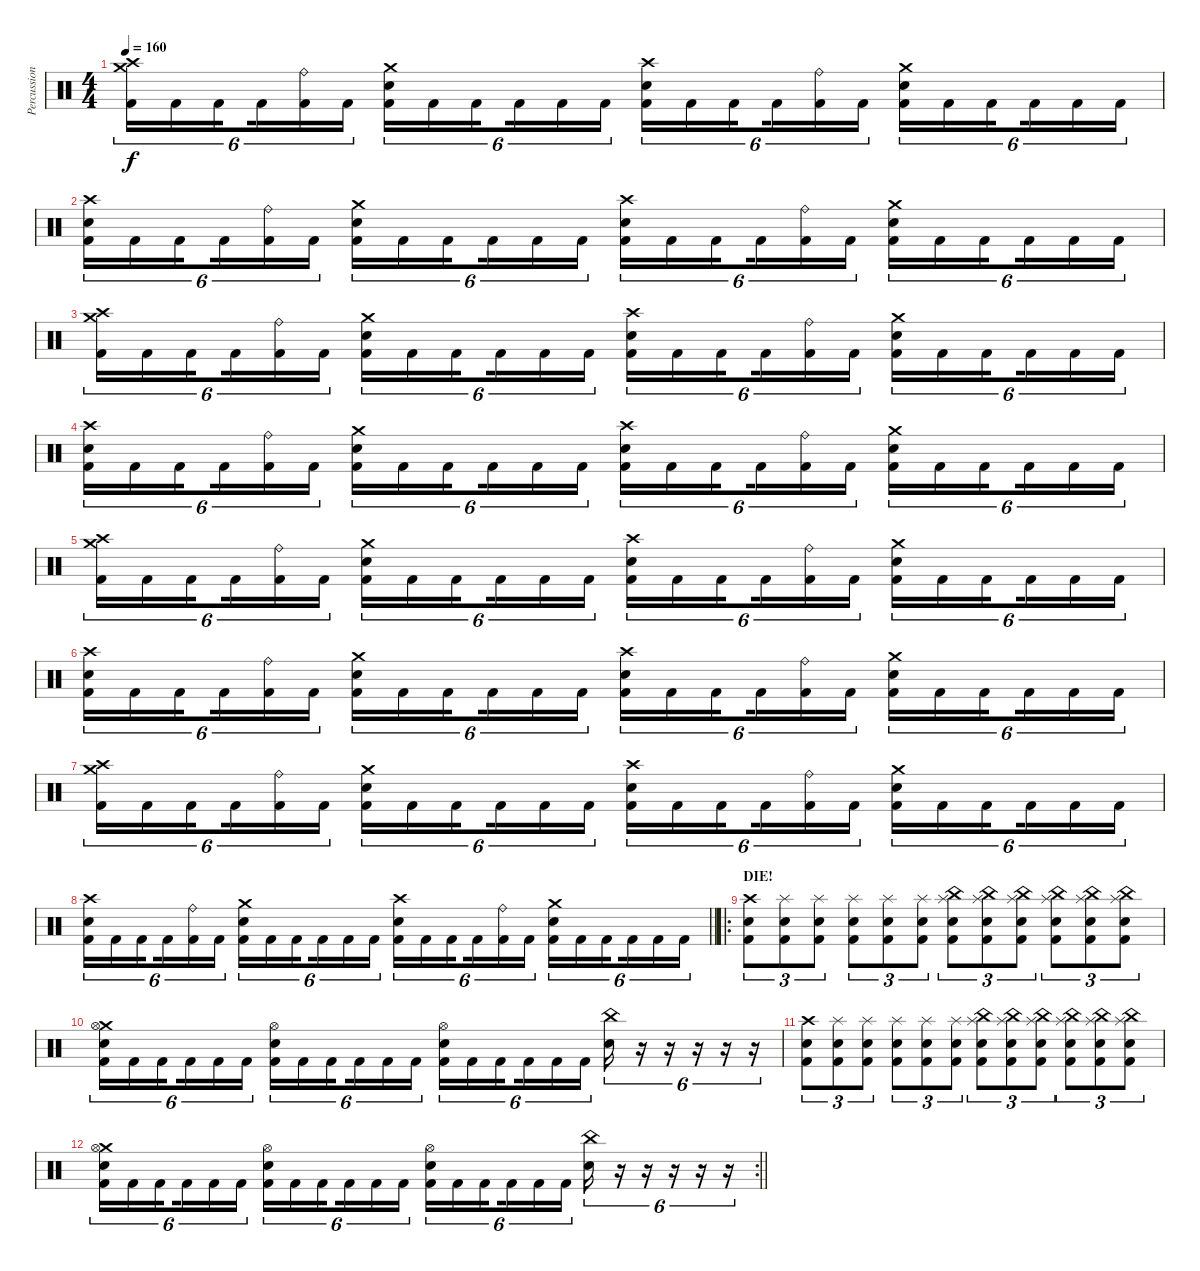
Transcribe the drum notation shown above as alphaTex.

\track ("Percussion" "Percussion") {instrument percussion}
\staff {score}
\articulation defaults
\ts (4 4)
\tempo 160
\clef neutral
\ks c
("Crash medium (hit)" "Crash high (hit)" "Kick (hit) 2").16{tu (6 4) dy f} "Kick (hit) 2".16{tu (6 4)} "Kick (hit) 2".16{tu (6 4) beam splitsecondary} "Kick (hit) 2".16{tu (6 4)} ("Ride (bell)" "Kick (hit) 2").16{tu (6 4)} "Kick (hit) 2".16{tu (6 4)} ("Crash medium (hit)" "Electric Snare (hit)" "Kick (hit) 2").16{tu (6 4)} "Kick (hit) 2".16{tu (6 4)} "Kick (hit) 2".16{tu (6 4) beam splitsecondary} "Kick (hit) 2".16{tu (6 4)} "Kick (hit) 2".16{tu (6 4)} "Kick (hit) 2".16{tu (6 4)} ("Crash high (hit)" "Electric Snare (hit)" "Kick (hit) 2").16{tu (6 4)} "Kick (hit) 2".16{tu (6 4)} "Kick (hit) 2".16{tu (6 4) beam splitsecondary} "Kick (hit) 2".16{tu (6 4)} ("Ride (bell)" "Kick (hit) 2").16{tu (6 4)} "Kick (hit) 2".16{tu (6 4)} ("Crash medium (hit)" "Electric Snare (hit)" "Kick (hit) 2").16{tu (6 4)} "Kick (hit) 2".16{tu (6 4)} "Kick (hit) 2".16{tu (6 4) beam splitsecondary} "Kick (hit) 2".16{tu (6 4)} "Kick (hit) 2".16{tu (6 4)} "Kick (hit) 2".16{tu (6 4)} |
("Crash high (hit)" "Electric Snare (hit)" "Kick (hit) 2").16{tu (6 4)} "Kick (hit) 2".16{tu (6 4)} "Kick (hit) 2".16{tu (6 4) beam splitsecondary} "Kick (hit) 2".16{tu (6 4)} ("Ride (bell)" "Kick (hit) 2").16{tu (6 4)} "Kick (hit) 2".16{tu (6 4)} ("Crash medium (hit)" "Electric Snare (hit)" "Kick (hit) 2").16{tu (6 4)} "Kick (hit) 2".16{tu (6 4)} "Kick (hit) 2".16{tu (6 4) beam splitsecondary} "Kick (hit) 2".16{tu (6 4)} "Kick (hit) 2".16{tu (6 4)} "Kick (hit) 2".16{tu (6 4)} ("Crash high (hit)" "Electric Snare (hit)" "Kick (hit) 2").16{tu (6 4)} "Kick (hit) 2".16{tu (6 4)} "Kick (hit) 2".16{tu (6 4) beam splitsecondary} "Kick (hit) 2".16{tu (6 4)} ("Ride (bell)" "Kick (hit) 2").16{tu (6 4)} "Kick (hit) 2".16{tu (6 4)} ("Crash medium (hit)" "Electric Snare (hit)" "Kick (hit) 2").16{tu (6 4)} "Kick (hit) 2".16{tu (6 4)} "Kick (hit) 2".16{tu (6 4) beam splitsecondary} "Kick (hit) 2".16{tu (6 4)} "Kick (hit) 2".16{tu (6 4)} "Kick (hit) 2".16{tu (6 4)} |
("Crash medium (hit)" "Crash high (hit)" "Kick (hit) 2").16{tu (6 4)} "Kick (hit) 2".16{tu (6 4)} "Kick (hit) 2".16{tu (6 4) beam splitsecondary} "Kick (hit) 2".16{tu (6 4)} ("Ride (bell)" "Kick (hit) 2").16{tu (6 4)} "Kick (hit) 2".16{tu (6 4)} ("Crash medium (hit)" "Electric Snare (hit)" "Kick (hit) 2").16{tu (6 4)} "Kick (hit) 2".16{tu (6 4)} "Kick (hit) 2".16{tu (6 4) beam splitsecondary} "Kick (hit) 2".16{tu (6 4)} "Kick (hit) 2".16{tu (6 4)} "Kick (hit) 2".16{tu (6 4)} ("Crash high (hit)" "Electric Snare (hit)" "Kick (hit) 2").16{tu (6 4)} "Kick (hit) 2".16{tu (6 4)} "Kick (hit) 2".16{tu (6 4) beam splitsecondary} "Kick (hit) 2".16{tu (6 4)} ("Ride (bell)" "Kick (hit) 2").16{tu (6 4)} "Kick (hit) 2".16{tu (6 4)} ("Crash medium (hit)" "Electric Snare (hit)" "Kick (hit) 2").16{tu (6 4)} "Kick (hit) 2".16{tu (6 4)} "Kick (hit) 2".16{tu (6 4) beam splitsecondary} "Kick (hit) 2".16{tu (6 4)} "Kick (hit) 2".16{tu (6 4)} "Kick (hit) 2".16{tu (6 4)} |
("Crash high (hit)" "Electric Snare (hit)" "Kick (hit) 2").16{tu (6 4)} "Kick (hit) 2".16{tu (6 4)} "Kick (hit) 2".16{tu (6 4) beam splitsecondary} "Kick (hit) 2".16{tu (6 4)} ("Ride (bell)" "Kick (hit) 2").16{tu (6 4)} "Kick (hit) 2".16{tu (6 4)} ("Crash medium (hit)" "Electric Snare (hit)" "Kick (hit) 2").16{tu (6 4)} "Kick (hit) 2".16{tu (6 4)} "Kick (hit) 2".16{tu (6 4) beam splitsecondary} "Kick (hit) 2".16{tu (6 4)} "Kick (hit) 2".16{tu (6 4)} "Kick (hit) 2".16{tu (6 4)} ("Crash high (hit)" "Electric Snare (hit)" "Kick (hit) 2").16{tu (6 4)} "Kick (hit) 2".16{tu (6 4)} "Kick (hit) 2".16{tu (6 4) beam splitsecondary} "Kick (hit) 2".16{tu (6 4)} ("Ride (bell)" "Kick (hit) 2").16{tu (6 4)} "Kick (hit) 2".16{tu (6 4)} ("Crash medium (hit)" "Electric Snare (hit)" "Kick (hit) 2").16{tu (6 4)} "Kick (hit) 2".16{tu (6 4)} "Kick (hit) 2".16{tu (6 4) beam splitsecondary} "Kick (hit) 2".16{tu (6 4)} "Kick (hit) 2".16{tu (6 4)} "Kick (hit) 2".16{tu (6 4)} |
("Crash medium (hit)" "Crash high (hit)" "Kick (hit) 2").16{tu (6 4)} "Kick (hit) 2".16{tu (6 4)} "Kick (hit) 2".16{tu (6 4) beam splitsecondary} "Kick (hit) 2".16{tu (6 4)} ("Ride (bell)" "Kick (hit) 2").16{tu (6 4)} "Kick (hit) 2".16{tu (6 4)} ("Crash medium (hit)" "Electric Snare (hit)" "Kick (hit) 2").16{tu (6 4)} "Kick (hit) 2".16{tu (6 4)} "Kick (hit) 2".16{tu (6 4) beam splitsecondary} "Kick (hit) 2".16{tu (6 4)} "Kick (hit) 2".16{tu (6 4)} "Kick (hit) 2".16{tu (6 4)} ("Crash high (hit)" "Electric Snare (hit)" "Kick (hit) 2").16{tu (6 4)} "Kick (hit) 2".16{tu (6 4)} "Kick (hit) 2".16{tu (6 4) beam splitsecondary} "Kick (hit) 2".16{tu (6 4)} ("Ride (bell)" "Kick (hit) 2").16{tu (6 4)} "Kick (hit) 2".16{tu (6 4)} ("Crash medium (hit)" "Electric Snare (hit)" "Kick (hit) 2").16{tu (6 4)} "Kick (hit) 2".16{tu (6 4)} "Kick (hit) 2".16{tu (6 4) beam splitsecondary} "Kick (hit) 2".16{tu (6 4)} "Kick (hit) 2".16{tu (6 4)} "Kick (hit) 2".16{tu (6 4)} |
("Crash high (hit)" "Electric Snare (hit)" "Kick (hit) 2").16{tu (6 4)} "Kick (hit) 2".16{tu (6 4)} "Kick (hit) 2".16{tu (6 4) beam splitsecondary} "Kick (hit) 2".16{tu (6 4)} ("Ride (bell)" "Kick (hit) 2").16{tu (6 4)} "Kick (hit) 2".16{tu (6 4)} ("Crash medium (hit)" "Electric Snare (hit)" "Kick (hit) 2").16{tu (6 4)} "Kick (hit) 2".16{tu (6 4)} "Kick (hit) 2".16{tu (6 4) beam splitsecondary} "Kick (hit) 2".16{tu (6 4)} "Kick (hit) 2".16{tu (6 4)} "Kick (hit) 2".16{tu (6 4)} ("Crash high (hit)" "Electric Snare (hit)" "Kick (hit) 2").16{tu (6 4)} "Kick (hit) 2".16{tu (6 4)} "Kick (hit) 2".16{tu (6 4) beam splitsecondary} "Kick (hit) 2".16{tu (6 4)} ("Ride (bell)" "Kick (hit) 2").16{tu (6 4)} "Kick (hit) 2".16{tu (6 4)} ("Crash medium (hit)" "Electric Snare (hit)" "Kick (hit) 2").16{tu (6 4)} "Kick (hit) 2".16{tu (6 4)} "Kick (hit) 2".16{tu (6 4) beam splitsecondary} "Kick (hit) 2".16{tu (6 4)} "Kick (hit) 2".16{tu (6 4)} "Kick (hit) 2".16{tu (6 4)} |
("Crash medium (hit)" "Crash high (hit)" "Kick (hit) 2").16{tu (6 4)} "Kick (hit) 2".16{tu (6 4)} "Kick (hit) 2".16{tu (6 4) beam splitsecondary} "Kick (hit) 2".16{tu (6 4)} ("Ride (bell)" "Kick (hit) 2").16{tu (6 4)} "Kick (hit) 2".16{tu (6 4)} ("Crash medium (hit)" "Electric Snare (hit)" "Kick (hit) 2").16{tu (6 4)} "Kick (hit) 2".16{tu (6 4)} "Kick (hit) 2".16{tu (6 4) beam splitsecondary} "Kick (hit) 2".16{tu (6 4)} "Kick (hit) 2".16{tu (6 4)} "Kick (hit) 2".16{tu (6 4)} ("Crash high (hit)" "Electric Snare (hit)" "Kick (hit) 2").16{tu (6 4)} "Kick (hit) 2".16{tu (6 4)} "Kick (hit) 2".16{tu (6 4) beam splitsecondary} "Kick (hit) 2".16{tu (6 4)} ("Ride (bell)" "Kick (hit) 2").16{tu (6 4)} "Kick (hit) 2".16{tu (6 4)} ("Crash medium (hit)" "Electric Snare (hit)" "Kick (hit) 2").16{tu (6 4)} "Kick (hit) 2".16{tu (6 4)} "Kick (hit) 2".16{tu (6 4) beam splitsecondary} "Kick (hit) 2".16{tu (6 4)} "Kick (hit) 2".16{tu (6 4)} "Kick (hit) 2".16{tu (6 4)} |
\barLineRight lightlight
("Crash high (hit)" "Electric Snare (hit)" "Kick (hit) 2").16{tu (6 4)} "Kick (hit) 2".16{tu (6 4)} "Kick (hit) 2".16{tu (6 4) beam splitsecondary} "Kick (hit) 2".16{tu (6 4)} ("Ride (bell)" "Kick (hit) 2").16{tu (6 4)} "Kick (hit) 2".16{tu (6 4)} ("Crash medium (hit)" "Electric Snare (hit)" "Kick (hit) 2").16{tu (6 4)} "Kick (hit) 2".16{tu (6 4)} "Kick (hit) 2".16{tu (6 4) beam splitsecondary} "Kick (hit) 2".16{tu (6 4)} "Kick (hit) 2".16{tu (6 4)} "Kick (hit) 2".16{tu (6 4)} ("Crash high (hit)" "Electric Snare (hit)" "Kick (hit) 2").16{tu (6 4)} "Kick (hit) 2".16{tu (6 4)} "Kick (hit) 2".16{tu (6 4) beam splitsecondary} "Kick (hit) 2".16{tu (6 4)} ("Ride (bell)" "Kick (hit) 2").16{tu (6 4)} "Kick (hit) 2".16{tu (6 4)} ("Crash medium (hit)" "Electric Snare (hit)" "Kick (hit) 2").16{tu (6 4)} "Kick (hit) 2".16{tu (6 4)} "Kick (hit) 2".16{tu (6 4) beam splitsecondary} "Kick (hit) 2".16{tu (6 4)} "Kick (hit) 2".16{tu (6 4)} "Kick (hit) 2".16{tu (6 4)} |
\ro
\section ("" "DIE!")
("Crash high (hit)" "Electric Snare (hit)" "Kick (hit) 2").8{tu (3 2)} ("Splash (hit)" "Electric Snare (hit)" "Kick (hit) 2").8{tu (3 2)} ("Splash (hit)" "Electric Snare (hit)" "Kick (hit) 2").8{tu (3 2)} ("Splash (hit)" "Electric Snare (hit)" "Kick (hit) 2").8{tu (3 2)} ("Splash (hit)" "Electric Snare (hit)" "Kick (hit) 2").8{tu (3 2)} ("Splash (hit)" "Electric Snare (hit)" "Kick (hit) 2").8{tu (3 2)} ("China (hit)" "Splash (hit)" "Electric Snare (hit)" "Kick (hit) 2").8{tu (3 2)} ("China (hit)" "Splash (hit)" "Electric Snare (hit)" "Kick (hit) 2").8{tu (3 2)} ("China (hit)" "Splash (hit)" "Electric Snare (hit)" "Kick (hit) 2").8{tu (3 2)} ("China (hit)" "Splash (hit)" "Electric Snare (hit)" "Kick (hit) 2").8{tu (3 2)} ("China (hit)" "Splash (hit)" "Electric Snare (hit)" "Kick (hit) 2").8{tu (3 2)} ("China (hit)" "Splash (hit)" "Electric Snare (hit)" "Kick (hit) 2").8{tu (3 2)} |
("Crash medium (hit)" "Hi-Hat (open)" "Electric Snare (hit)" "Kick (hit) 2").16{tu (6 4)} "Kick (hit) 2".16{tu (6 4)} "Kick (hit) 2".16{tu (6 4) beam splitsecondary} "Kick (hit) 2".16{tu (6 4)} "Kick (hit) 2".16{tu (6 4)} "Kick (hit) 2".16{tu (6 4)} ("Hi-Hat (open)" "Electric Snare (hit)" "Kick (hit) 2").16{tu (6 4)} "Kick (hit) 2".16{tu (6 4)} "Kick (hit) 2".16{tu (6 4) beam splitsecondary} "Kick (hit) 2".16{tu (6 4)} "Kick (hit) 2".16{tu (6 4)} "Kick (hit) 2".16{tu (6 4)} ("Hi-Hat (open)" "Electric Snare (hit)" "Kick (hit) 2").16{tu (6 4)} "Kick (hit) 2".16{tu (6 4)} "Kick (hit) 2".16{tu (6 4) beam splitsecondary} "Kick (hit) 2".16{tu (6 4)} "Kick (hit) 2".16{tu (6 4)} "Kick (hit) 2".16{tu (6 4)} ("China (hit)" "Electric Snare (hit)").16{tu (6 4)} r.16{tu (6 4)} r.16{tu (6 4)} r.16{tu (6 4)} r.16{tu (6 4)} r.16{tu (6 4)} |
("Crash high (hit)" "Electric Snare (hit)" "Kick (hit) 2").8{tu (3 2)} ("Splash (hit)" "Electric Snare (hit)" "Kick (hit) 2").8{tu (3 2)} ("Splash (hit)" "Electric Snare (hit)" "Kick (hit) 2").8{tu (3 2)} ("Splash (hit)" "Electric Snare (hit)" "Kick (hit) 2").8{tu (3 2)} ("Splash (hit)" "Electric Snare (hit)" "Kick (hit) 2").8{tu (3 2)} ("Splash (hit)" "Electric Snare (hit)" "Kick (hit) 2").8{tu (3 2)} ("China (hit)" "Splash (hit)" "Electric Snare (hit)" "Kick (hit) 2").8{tu (3 2)} ("China (hit)" "Splash (hit)" "Electric Snare (hit)" "Kick (hit) 2").8{tu (3 2)} ("China (hit)" "Splash (hit)" "Electric Snare (hit)" "Kick (hit) 2").8{tu (3 2)} ("China (hit)" "Splash (hit)" "Electric Snare (hit)" "Kick (hit) 2").8{tu (3 2)} ("China (hit)" "Splash (hit)" "Electric Snare (hit)" "Kick (hit) 2").8{tu (3 2)} ("China (hit)" "Splash (hit)" "Electric Snare (hit)" "Kick (hit) 2").8{tu (3 2)} |
\rc 2
\barLineRight lightlight
("Crash medium (hit)" "Hi-Hat (open)" "Electric Snare (hit)" "Kick (hit) 2").16{tu (6 4)} "Kick (hit) 2".16{tu (6 4)} "Kick (hit) 2".16{tu (6 4) beam splitsecondary} "Kick (hit) 2".16{tu (6 4)} "Kick (hit) 2".16{tu (6 4)} "Kick (hit) 2".16{tu (6 4)} ("Hi-Hat (open)" "Electric Snare (hit)" "Kick (hit) 2").16{tu (6 4)} "Kick (hit) 2".16{tu (6 4)} "Kick (hit) 2".16{tu (6 4) beam splitsecondary} "Kick (hit) 2".16{tu (6 4)} "Kick (hit) 2".16{tu (6 4)} "Kick (hit) 2".16{tu (6 4)} ("Hi-Hat (open)" "Electric Snare (hit)" "Kick (hit) 2").16{tu (6 4)} "Kick (hit) 2".16{tu (6 4)} "Kick (hit) 2".16{tu (6 4) beam splitsecondary} "Kick (hit) 2".16{tu (6 4)} "Kick (hit) 2".16{tu (6 4)} "Kick (hit) 2".16{tu (6 4)} ("China (hit)" "Electric Snare (hit)").16{tu (6 4)} r.16{tu (6 4)} r.16{tu (6 4)} r.16{tu (6 4)} r.16{tu (6 4)} r.16{tu (6 4)}
